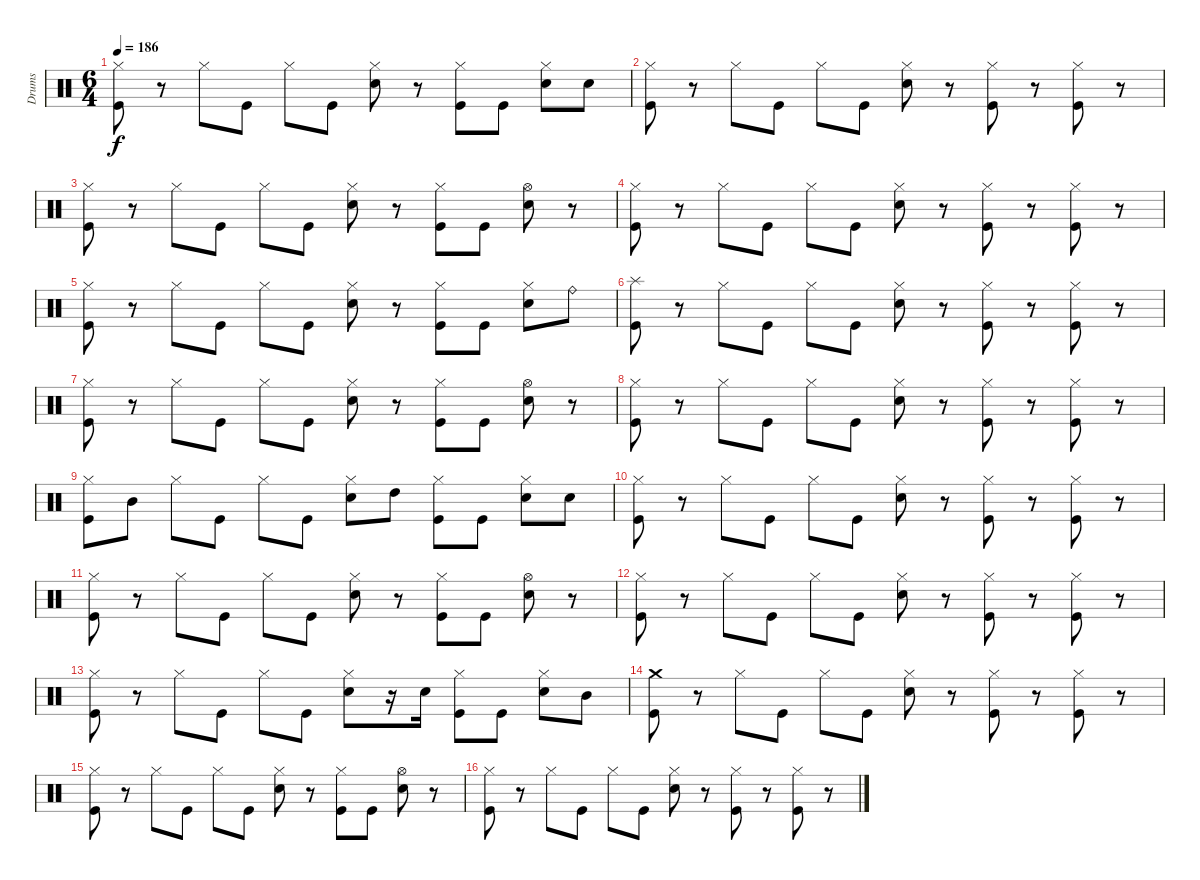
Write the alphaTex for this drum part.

\track ("Drums" "Drums") {instrument percussion}
\staff {score}
\articulation defaults
\ts (6 4)
\tempo 186
\clef neutral
\ks c
("Hi-Hat (closed)" "Kick (hit)").8{dy f} r.8 "Hi-Hat (closed)".8 "Kick (hit)".8 "Hi-Hat (closed)".8 "Kick (hit)".8 ("Hi-Hat (closed)" "Snare (hit) 2").8 r.8 ("Hi-Hat (closed)" "Kick (hit)").8 "Kick (hit)".8 ("Hi-Hat (closed)" "Snare (hit) 2").8 "Snare (hit) 2".8 |
("Hi-Hat (closed)" "Kick (hit)").8 r.8 "Hi-Hat (closed)".8 "Kick (hit)".8 "Hi-Hat (closed)".8 "Kick (hit)".8 ("Hi-Hat (closed)" "Snare (hit) 2").8 r.8 ("Hi-Hat (closed)" "Kick (hit)").8 r.8 ("Hi-Hat (closed)" "Kick (hit)").8 r.8 |
("Hi-Hat (closed)" "Kick (hit)").8 r.8 "Hi-Hat (closed)".8 "Kick (hit)".8 "Hi-Hat (closed)".8 "Kick (hit)".8 ("Hi-Hat (closed)" "Snare (hit) 2").8 r.8 ("Hi-Hat (closed)" "Kick (hit)").8 "Kick (hit)".8 ("Hi-Hat (open)" "Snare (hit) 2").8 r.8 |
("Hi-Hat (closed)" "Kick (hit)").8 r.8 "Hi-Hat (closed)".8 "Kick (hit)".8 "Hi-Hat (closed)".8 "Kick (hit)".8 ("Hi-Hat (closed)" "Snare (hit) 2").8 r.8 ("Hi-Hat (closed)" "Kick (hit)").8 r.8 ("Hi-Hat (closed)" "Kick (hit)").8 r.8 |
("Hi-Hat (closed)" "Kick (hit)").8 r.8 "Hi-Hat (closed)".8 "Kick (hit)".8 "Hi-Hat (closed)".8 "Kick (hit)".8 ("Hi-Hat (closed)" "Snare (hit) 2").8 r.8 ("Hi-Hat (closed)" "Kick (hit)").8 "Kick (hit)".8 ("Hi-Hat (closed)" "Snare (hit) 2").8 "Ride (bell)".8 |
("Splash (hit)" "Kick (hit)").8 r.8 "Hi-Hat (closed)".8 "Kick (hit)".8 "Hi-Hat (closed)".8 "Kick (hit)".8 ("Hi-Hat (closed)" "Snare (hit) 2").8 r.8 ("Hi-Hat (closed)" "Kick (hit)").8 r.8 ("Hi-Hat (closed)" "Kick (hit)").8 r.8 |
("Hi-Hat (closed)" "Kick (hit)").8 r.8 "Hi-Hat (closed)".8 "Kick (hit)".8 "Hi-Hat (closed)".8 "Kick (hit)".8 ("Hi-Hat (closed)" "Snare (hit) 2").8 r.8 ("Hi-Hat (closed)" "Kick (hit)").8 "Kick (hit)".8 ("Hi-Hat (open)" "Snare (hit) 2").8 r.8 |
("Hi-Hat (closed)" "Kick (hit)").8 r.8 "Hi-Hat (closed)".8 "Kick (hit)".8 "Hi-Hat (closed)".8 "Kick (hit)".8 ("Hi-Hat (closed)" "Snare (hit) 2").8 r.8 ("Hi-Hat (closed)" "Kick (hit)").8 r.8 ("Hi-Hat (closed)" "Kick (hit)").8 r.8 |
("Hi-Hat (closed)" "Kick (hit)").8 "Mid Tom (hit)".8 "Hi-Hat (closed)".8 "Kick (hit)".8 "Hi-Hat (closed)".8 "Kick (hit)".8 ("Hi-Hat (closed)" "Snare (hit) 2").8 "High Tom (hit)".8 ("Hi-Hat (closed)" "Kick (hit)").8 "Kick (hit)".8 ("Hi-Hat (closed)" "Snare (hit) 2").8 "Snare (hit) 2".8 |
("Hi-Hat (closed)" "Kick (hit)").8 r.8 "Hi-Hat (closed)".8 "Kick (hit)".8 "Hi-Hat (closed)".8 "Kick (hit)".8 ("Hi-Hat (closed)" "Snare (hit) 2").8 r.8 ("Hi-Hat (closed)" "Kick (hit)").8 r.8 ("Hi-Hat (closed)" "Kick (hit)").8 r.8 |
("Hi-Hat (closed)" "Kick (hit)").8 r.8 "Hi-Hat (closed)".8 "Kick (hit)".8 "Hi-Hat (closed)".8 "Kick (hit)".8 ("Hi-Hat (closed)" "Snare (hit) 2").8 r.8 ("Hi-Hat (closed)" "Kick (hit)").8 "Kick (hit)".8 ("Hi-Hat (open)" "Snare (hit) 2").8 r.8 |
("Hi-Hat (closed)" "Kick (hit)").8 r.8 "Hi-Hat (closed)".8 "Kick (hit)".8 "Hi-Hat (closed)".8 "Kick (hit)".8 ("Hi-Hat (closed)" "Snare (hit) 2").8 r.8 ("Hi-Hat (closed)" "Kick (hit)").8 r.8 ("Hi-Hat (closed)" "Kick (hit)").8 r.8 |
("Hi-Hat (closed)" "Kick (hit)").8 r.8 "Hi-Hat (closed)".8 "Kick (hit)".8 "Hi-Hat (closed)".8 "Kick (hit)".8 ("Hi-Hat (closed)" "Snare (hit) 2").8 r.16 "Snare (hit) 2".16 ("Hi-Hat (closed)" "Kick (hit)").8 "Kick (hit)".8 ("Hi-Hat (closed)" "Snare (hit) 2").8 "Mid Tom (hit)".8 |
("Kick (hit)" "Crash medium (hit)").8 r.8 "Hi-Hat (closed)".8 "Kick (hit)".8 "Hi-Hat (closed)".8 "Kick (hit)".8 ("Hi-Hat (closed)" "Snare (hit) 2").8 r.8 ("Hi-Hat (closed)" "Kick (hit)").8 r.8 ("Hi-Hat (closed)" "Kick (hit)").8 r.8 |
("Hi-Hat (closed)" "Kick (hit)").8 r.8 "Hi-Hat (closed)".8 "Kick (hit)".8 "Hi-Hat (closed)".8 "Kick (hit)".8 ("Hi-Hat (closed)" "Snare (hit) 2").8 r.8 ("Hi-Hat (closed)" "Kick (hit)").8 "Kick (hit)".8 ("Hi-Hat (open)" "Snare (hit) 2").8 r.8 |
("Hi-Hat (closed)" "Kick (hit)").8 r.8 "Hi-Hat (closed)".8 "Kick (hit)".8 "Hi-Hat (closed)".8 "Kick (hit)".8 ("Hi-Hat (closed)" "Snare (hit) 2").8 r.8 ("Hi-Hat (closed)" "Kick (hit)").8 r.8 ("Hi-Hat (closed)" "Kick (hit)").8 r.8
